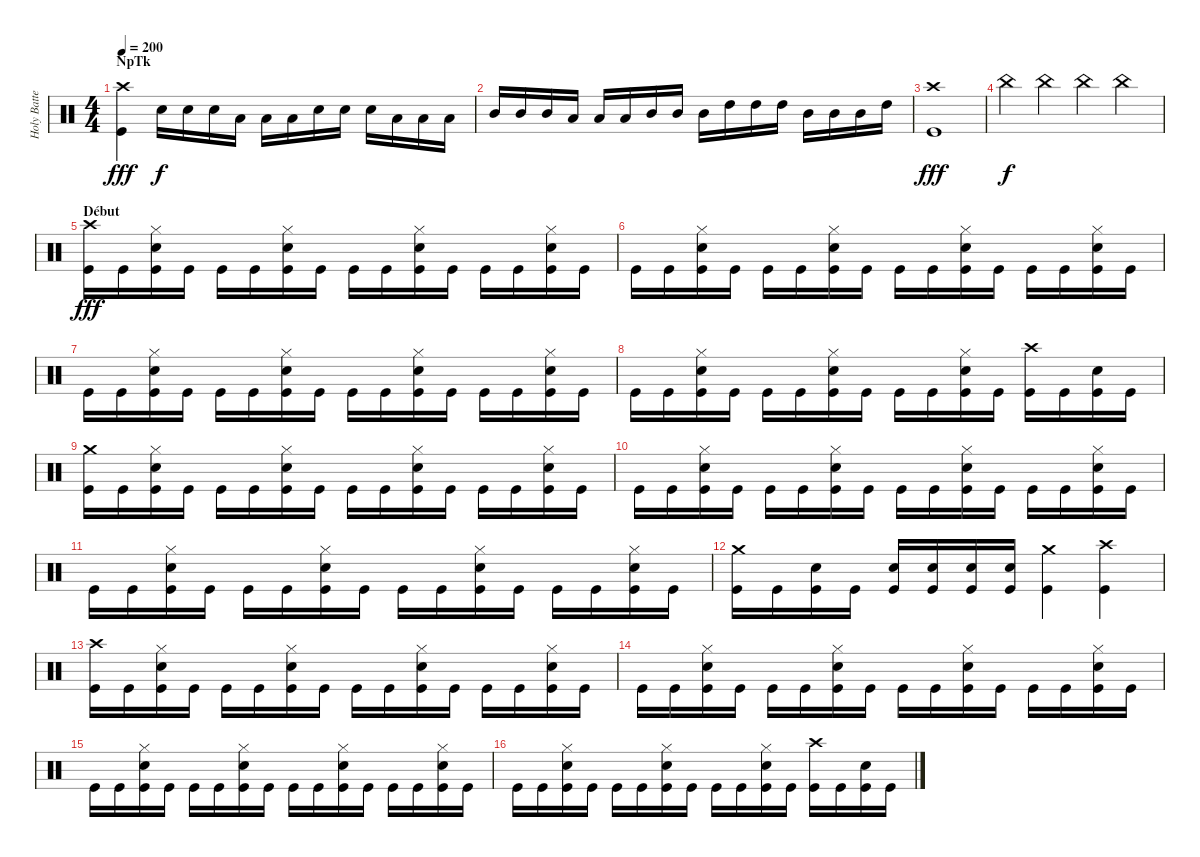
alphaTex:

\track ("Holy Batteur" "Holy Batte") {instrument percussion}
\staff {score}
\articulation defaults
\ts (4 4)
\section ("" "NpTk")
\tempo 200
\clef neutral
\ks c
("Crash high (hit)" "Kick (hit)").4{dy fff} "Electric Snare (hit)".16{dy f} "Electric Snare (hit)".16 "Electric Snare (hit)".16 "Low Tom (hit)".16 "Low Tom (hit)".16 "Low Tom (hit)".16 "Electric Snare (hit)".16 "Electric Snare (hit)".16 "Electric Snare (hit)".16 "Low Tom (hit)".16 "Low Tom (hit)".16 "Low Tom (hit)".16 |
"Mid Tom (hit)".16 "Mid Tom (hit)".16 "Mid Tom (hit)".16 "Low Tom (hit)".16 "Low Tom (hit)".16 "Low Tom (hit)".16 "Mid Tom (hit)".16 "Mid Tom (hit)".16 "Mid Tom (hit)".16 "High Tom (hit)".16 "High Tom (hit)".16 "High Tom (hit)".16 "Mid Tom (hit)".16 "Mid Tom (hit)".16 "Mid Tom (hit)".16 "High Tom (hit)".16 |
("Crash high (hit)" "Kick (hit)").1{dy fff} |
"China (hit)".4{dy f} "China (hit)".4 "China (hit)".4 "China (hit)".4 |
\section ("" "Début")
("Crash high (hit)" "Kick (hit)").16{dy fff} "Kick (hit)".16 ("Hi-Hat (closed)" "Electric Snare (hit)" "Kick (hit)").16 "Kick (hit)".16 "Kick (hit)".16 "Kick (hit)".16 ("Hi-Hat (closed)" "Electric Snare (hit)" "Kick (hit)").16 "Kick (hit)".16 "Kick (hit)".16 "Kick (hit)".16 ("Hi-Hat (closed)" "Electric Snare (hit)" "Kick (hit)").16 "Kick (hit)".16 "Kick (hit)".16 "Kick (hit)".16 ("Hi-Hat (closed)" "Electric Snare (hit)" "Kick (hit)").16 "Kick (hit)".16 |
"Kick (hit)".16 "Kick (hit)".16 ("Hi-Hat (closed)" "Electric Snare (hit)" "Kick (hit)").16 "Kick (hit)".16 "Kick (hit)".16 "Kick (hit)".16 ("Hi-Hat (closed)" "Electric Snare (hit)" "Kick (hit)").16 "Kick (hit)".16 "Kick (hit)".16 "Kick (hit)".16 ("Hi-Hat (closed)" "Electric Snare (hit)" "Kick (hit)").16 "Kick (hit)".16 "Kick (hit)".16 "Kick (hit)".16 ("Hi-Hat (closed)" "Electric Snare (hit)" "Kick (hit)").16 "Kick (hit)".16 |
"Kick (hit)".16 "Kick (hit)".16 ("Hi-Hat (closed)" "Electric Snare (hit)" "Kick (hit)").16 "Kick (hit)".16 "Kick (hit)".16 "Kick (hit)".16 ("Hi-Hat (closed)" "Electric Snare (hit)" "Kick (hit)").16 "Kick (hit)".16 "Kick (hit)".16 "Kick (hit)".16 ("Hi-Hat (closed)" "Electric Snare (hit)" "Kick (hit)").16 "Kick (hit)".16 "Kick (hit)".16 "Kick (hit)".16 ("Hi-Hat (closed)" "Electric Snare (hit)" "Kick (hit)").16 "Kick (hit)".16 |
"Kick (hit)".16 "Kick (hit)".16 ("Hi-Hat (closed)" "Electric Snare (hit)" "Kick (hit)").16 "Kick (hit)".16 "Kick (hit)".16 "Kick (hit)".16 ("Hi-Hat (closed)" "Electric Snare (hit)" "Kick (hit)").16 "Kick (hit)".16 "Kick (hit)".16 "Kick (hit)".16 ("Hi-Hat (closed)" "Electric Snare (hit)" "Kick (hit)").16 "Kick (hit)".16 ("Crash high (hit)" "Kick (hit)").16 "Kick (hit)".16 ("Electric Snare (hit)" "Kick (hit)").16 "Kick (hit)".16 |
("Crash medium (hit)" "Kick (hit)").16 "Kick (hit)".16 ("Hi-Hat (closed)" "Electric Snare (hit)" "Kick (hit)").16 "Kick (hit)".16 "Kick (hit)".16 "Kick (hit)".16 ("Hi-Hat (closed)" "Electric Snare (hit)" "Kick (hit)").16 "Kick (hit)".16 "Kick (hit)".16 "Kick (hit)".16 ("Hi-Hat (closed)" "Electric Snare (hit)" "Kick (hit)").16 "Kick (hit)".16 "Kick (hit)".16 "Kick (hit)".16 ("Hi-Hat (closed)" "Electric Snare (hit)" "Kick (hit)").16 "Kick (hit)".16 |
"Kick (hit)".16 "Kick (hit)".16 ("Hi-Hat (closed)" "Electric Snare (hit)" "Kick (hit)").16 "Kick (hit)".16 "Kick (hit)".16 "Kick (hit)".16 ("Hi-Hat (closed)" "Electric Snare (hit)" "Kick (hit)").16 "Kick (hit)".16 "Kick (hit)".16 "Kick (hit)".16 ("Hi-Hat (closed)" "Electric Snare (hit)" "Kick (hit)").16 "Kick (hit)".16 "Kick (hit)".16 "Kick (hit)".16 ("Hi-Hat (closed)" "Electric Snare (hit)" "Kick (hit)").16 "Kick (hit)".16 |
"Kick (hit)".16 "Kick (hit)".16 ("Hi-Hat (closed)" "Electric Snare (hit)" "Kick (hit)").16 "Kick (hit)".16 "Kick (hit)".16 "Kick (hit)".16 ("Hi-Hat (closed)" "Electric Snare (hit)" "Kick (hit)").16 "Kick (hit)".16 "Kick (hit)".16 "Kick (hit)".16 ("Hi-Hat (closed)" "Electric Snare (hit)" "Kick (hit)").16 "Kick (hit)".16 "Kick (hit)".16 "Kick (hit)".16 ("Hi-Hat (closed)" "Electric Snare (hit)" "Kick (hit)").16 "Kick (hit)".16 |
("Crash medium (hit)" "Kick (hit)").16 "Kick (hit)".16 ("Electric Snare (hit)" "Kick (hit)").16 "Kick (hit)".16 ("Electric Snare (hit)" "Kick (hit)").16 ("Electric Snare (hit)" "Kick (hit)").16 ("Electric Snare (hit)" "Kick (hit)").16 ("Electric Snare (hit)" "Kick (hit)").16 ("Crash medium (hit)" "Kick (hit)").4 ("Crash high (hit)" "Kick (hit)").4 |
("Crash high (hit)" "Kick (hit)").16 "Kick (hit)".16 ("Hi-Hat (closed)" "Electric Snare (hit)" "Kick (hit)").16 "Kick (hit)".16 "Kick (hit)".16 "Kick (hit)".16 ("Hi-Hat (closed)" "Electric Snare (hit)" "Kick (hit)").16 "Kick (hit)".16 "Kick (hit)".16 "Kick (hit)".16 ("Hi-Hat (closed)" "Electric Snare (hit)" "Kick (hit)").16 "Kick (hit)".16 "Kick (hit)".16 "Kick (hit)".16 ("Hi-Hat (closed)" "Electric Snare (hit)" "Kick (hit)").16 "Kick (hit)".16 |
"Kick (hit)".16 "Kick (hit)".16 ("Hi-Hat (closed)" "Electric Snare (hit)" "Kick (hit)").16 "Kick (hit)".16 "Kick (hit)".16 "Kick (hit)".16 ("Hi-Hat (closed)" "Electric Snare (hit)" "Kick (hit)").16 "Kick (hit)".16 "Kick (hit)".16 "Kick (hit)".16 ("Hi-Hat (closed)" "Electric Snare (hit)" "Kick (hit)").16 "Kick (hit)".16 "Kick (hit)".16 "Kick (hit)".16 ("Hi-Hat (closed)" "Electric Snare (hit)" "Kick (hit)").16 "Kick (hit)".16 |
"Kick (hit)".16 "Kick (hit)".16 ("Hi-Hat (closed)" "Electric Snare (hit)" "Kick (hit)").16 "Kick (hit)".16 "Kick (hit)".16 "Kick (hit)".16 ("Hi-Hat (closed)" "Electric Snare (hit)" "Kick (hit)").16 "Kick (hit)".16 "Kick (hit)".16 "Kick (hit)".16 ("Hi-Hat (closed)" "Electric Snare (hit)" "Kick (hit)").16 "Kick (hit)".16 "Kick (hit)".16 "Kick (hit)".16 ("Hi-Hat (closed)" "Electric Snare (hit)" "Kick (hit)").16 "Kick (hit)".16 |
"Kick (hit)".16 "Kick (hit)".16 ("Hi-Hat (closed)" "Electric Snare (hit)" "Kick (hit)").16 "Kick (hit)".16 "Kick (hit)".16 "Kick (hit)".16 ("Hi-Hat (closed)" "Electric Snare (hit)" "Kick (hit)").16 "Kick (hit)".16 "Kick (hit)".16 "Kick (hit)".16 ("Hi-Hat (closed)" "Electric Snare (hit)" "Kick (hit)").16 "Kick (hit)".16 ("Crash high (hit)" "Kick (hit)").16 "Kick (hit)".16 ("Electric Snare (hit)" "Kick (hit)").16 "Kick (hit)".16
